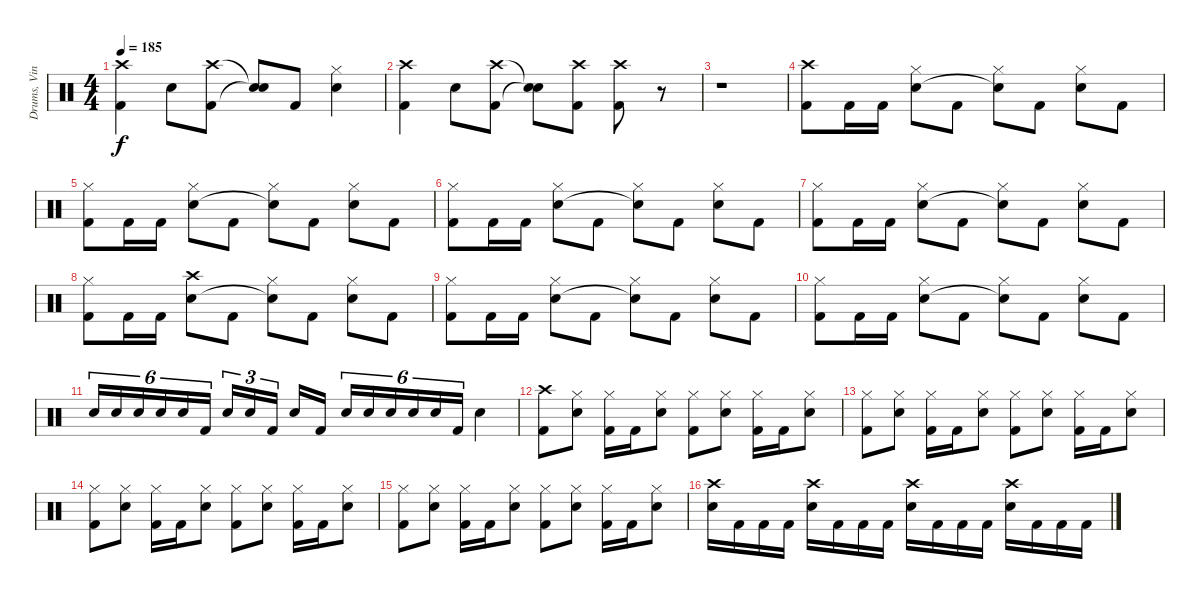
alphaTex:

\track ("Drums, Vinnie" "Drums, Vin") {instrument percussion}
\staff {score}
\articulation defaults
\ts (4 4)
\tempo 185
\clef neutral
\ks c
("Crash high (hit)" "Kick (hit) 2").4{dy f} "Electric Snare (hit)".8 ("Crash high (hit)" "Kick (hit) 2").8 ("Snare (hit)"{t} "Snare (hit)"{t}).8 "Kick (hit) 2".8 ("Hi-Hat (closed)" "Electric Snare (hit)").4 |
("Crash high (hit)" "Kick (hit) 2").4 "Electric Snare (hit)".8 ("Crash high (hit)" "Kick (hit) 2").8 ("Snare (hit)"{t} "Snare (hit)"{t}).8 ("Crash high (hit)" "Kick (hit) 2").8 ("Crash high (hit)" "Kick (hit) 2").8 r.8 |
r.1 |
("Crash high (hit)" "Kick (hit) 2").8 "Kick (hit) 2".16 "Kick (hit) 2".16 ("Hi-Hat (closed)" "Electric Snare (hit)").8 "Kick (hit) 2".8 ("Hi-Hat (closed)" "Snare (hit)"{t}).8 "Kick (hit) 2".8 ("Hi-Hat (closed)" "Electric Snare (hit)").8 "Kick (hit) 2".8 |
("Hi-Hat (closed)" "Kick (hit) 2").8 "Kick (hit) 2".16 "Kick (hit) 2".16 ("Hi-Hat (closed)" "Electric Snare (hit)").8 "Kick (hit) 2".8 ("Hi-Hat (closed)" "Snare (hit)"{t}).8 "Kick (hit) 2".8 ("Hi-Hat (closed)" "Electric Snare (hit)").8 "Kick (hit) 2".8 |
("Hi-Hat (closed)" "Kick (hit) 2").8 "Kick (hit) 2".16 "Kick (hit) 2".16 ("Hi-Hat (closed)" "Electric Snare (hit)").8 "Kick (hit) 2".8 ("Hi-Hat (closed)" "Snare (hit)"{t}).8 "Kick (hit) 2".8 ("Hi-Hat (closed)" "Electric Snare (hit)").8 "Kick (hit) 2".8 |
("Hi-Hat (closed)" "Kick (hit) 2").8 "Kick (hit) 2".16 "Kick (hit) 2".16 ("Hi-Hat (closed)" "Electric Snare (hit)").8 "Kick (hit) 2".8 ("Hi-Hat (closed)" "Snare (hit)"{t}).8 "Kick (hit) 2".8 ("Hi-Hat (closed)" "Electric Snare (hit)").8 "Kick (hit) 2".8 |
("Hi-Hat (closed)" "Kick (hit) 2").8 "Kick (hit) 2".16 "Kick (hit) 2".16 ("Crash high (hit)" "Electric Snare (hit)").8 "Kick (hit) 2".8 ("Hi-Hat (closed)" "Snare (hit)"{t}).8 "Kick (hit) 2".8 ("Hi-Hat (closed)" "Electric Snare (hit)").8 "Kick (hit) 2".8 |
("Hi-Hat (closed)" "Kick (hit) 2").8 "Kick (hit) 2".16 "Kick (hit) 2".16 ("Hi-Hat (closed)" "Electric Snare (hit)").8 "Kick (hit) 2".8 ("Hi-Hat (closed)" "Snare (hit)"{t}).8 "Kick (hit) 2".8 ("Hi-Hat (closed)" "Electric Snare (hit)").8 "Kick (hit) 2".8 |
("Hi-Hat (closed)" "Kick (hit) 2").8 "Kick (hit) 2".16 "Kick (hit) 2".16 ("Hi-Hat (closed)" "Electric Snare (hit)").8 "Kick (hit) 2".8 ("Hi-Hat (closed)" "Snare (hit)"{t}).8 "Kick (hit) 2".8 ("Hi-Hat (closed)" "Electric Snare (hit)").8 "Kick (hit) 2".8 |
"Electric Snare (hit)".16{tu (6 4)} "Electric Snare (hit)".16{tu (6 4)} "Electric Snare (hit)".16{tu (6 4)} "Electric Snare (hit)".16{tu (6 4)} "Electric Snare (hit)".16{tu (6 4)} "Kick (hit) 2".16{tu (6 4)} "Electric Snare (hit)".16{tu (3 2)} "Electric Snare (hit)".16{tu (3 2)} "Kick (hit) 2".16{tu (3 2)} "Electric Snare (hit)".16 "Kick (hit) 2".16 "Electric Snare (hit)".16{tu (6 4)} "Electric Snare (hit)".16{tu (6 4)} "Electric Snare (hit)".16{tu (6 4)} "Electric Snare (hit)".16{tu (6 4)} "Electric Snare (hit)".16{tu (6 4)} "Kick (hit) 2".16{tu (6 4)} "Electric Snare (hit)".4 |
("Crash high (hit)" "Kick (hit) 2").8 ("Hi-Hat (closed)" "Electric Snare (hit)").8 ("Hi-Hat (closed)" "Kick (hit) 2").16 "Kick (hit) 2".16 ("Hi-Hat (closed)" "Electric Snare (hit)").8 ("Hi-Hat (closed)" "Kick (hit) 2").8 ("Hi-Hat (closed)" "Electric Snare (hit)").8 ("Hi-Hat (closed)" "Kick (hit) 2").16 "Kick (hit) 2".16 ("Hi-Hat (closed)" "Electric Snare (hit)").8 |
("Hi-Hat (closed)" "Kick (hit) 2").8 ("Hi-Hat (closed)" "Electric Snare (hit)").8 ("Hi-Hat (closed)" "Kick (hit) 2").16 "Kick (hit) 2".16 ("Hi-Hat (closed)" "Electric Snare (hit)").8 ("Hi-Hat (closed)" "Kick (hit) 2").8 ("Hi-Hat (closed)" "Electric Snare (hit)").8 ("Hi-Hat (closed)" "Kick (hit) 2").16 "Kick (hit) 2".16 ("Hi-Hat (closed)" "Electric Snare (hit)").8 |
("Hi-Hat (closed)" "Kick (hit) 2").8 ("Hi-Hat (closed)" "Electric Snare (hit)").8 ("Hi-Hat (closed)" "Kick (hit) 2").16 "Kick (hit) 2".16 ("Hi-Hat (closed)" "Electric Snare (hit)").8 ("Hi-Hat (closed)" "Kick (hit) 2").8 ("Hi-Hat (closed)" "Electric Snare (hit)").8 ("Hi-Hat (closed)" "Kick (hit) 2").16 "Kick (hit) 2".16 ("Hi-Hat (closed)" "Electric Snare (hit)").8 |
("Hi-Hat (closed)" "Kick (hit) 2").8 ("Hi-Hat (closed)" "Electric Snare (hit)").8 ("Hi-Hat (closed)" "Kick (hit) 2").16 "Kick (hit) 2".16 ("Hi-Hat (closed)" "Electric Snare (hit)").8 ("Hi-Hat (closed)" "Kick (hit) 2").8 ("Hi-Hat (closed)" "Electric Snare (hit)").8 ("Hi-Hat (closed)" "Kick (hit) 2").16 "Kick (hit) 2".16 ("Hi-Hat (closed)" "Electric Snare (hit)").8 |
("Crash high (hit)" "Electric Snare (hit)").16 "Kick (hit) 2".16 "Kick (hit) 2".16 "Kick (hit) 2".16 ("Crash high (hit)" "Electric Snare (hit)").16 "Kick (hit) 2".16 "Kick (hit) 2".16 "Kick (hit) 2".16 ("Crash high (hit)" "Electric Snare (hit)").16 "Kick (hit) 2".16 "Kick (hit) 2".16 "Kick (hit) 2".16 ("Crash high (hit)" "Electric Snare (hit)").16 "Kick (hit) 2".16 "Kick (hit) 2".16 "Kick (hit) 2".16
